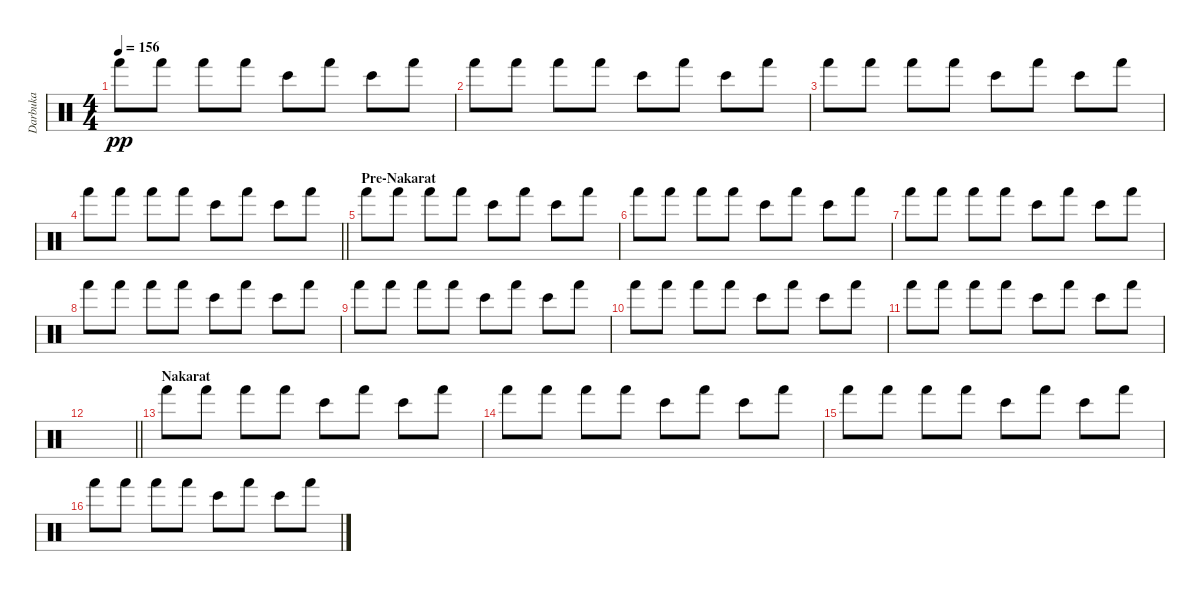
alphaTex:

\track ("Darbuka" "Darbuka") {instrument percussion}
\staff {score}
\articulation defaults
\ts (4 4)
\tempo 156
\clef neutral
\ks c "Hand (hit)".8{dy pp} "Hand (hit)".8 "Hand (hit)".8 "Hand (hit)".8 "Bongo High (hit)".8 "Hand (hit)".8 "Bongo High (hit)".8 "Hand (hit)".8
|
"Hand (hit)".8 "Hand (hit)".8 "Hand (hit)".8 "Hand (hit)".8 "Bongo High (hit)".8 "Hand (hit)".8 "Bongo High (hit)".8 "Hand (hit)".8 |
"Hand (hit)".8 "Hand (hit)".8 "Hand (hit)".8 "Hand (hit)".8 "Bongo High (hit)".8 "Hand (hit)".8 "Bongo High (hit)".8 "Hand (hit)".8 |
\barLineRight lightlight "Hand (hit)".8 "Hand (hit)".8 "Hand (hit)".8 "Hand (hit)".8 "Bongo High (hit)".8 "Hand (hit)".8 "Bongo High (hit)".8 "Hand (hit)".8
|
\section ("" "Pre-Nakarat")
"Hand (hit)".8 "Hand (hit)".8 "Hand (hit)".8 "Hand (hit)".8 "Bongo High (hit)".8 "Hand (hit)".8 "Bongo High (hit)".8 "Hand (hit)".8 |
"Hand (hit)".8 "Hand (hit)".8 "Hand (hit)".8 "Hand (hit)".8 "Bongo High (hit)".8 "Hand (hit)".8 "Bongo High (hit)".8 "Hand (hit)".8 |
"Hand (hit)".8 "Hand (hit)".8 "Hand (hit)".8 "Hand (hit)".8 "Bongo High (hit)".8 "Hand (hit)".8 "Bongo High (hit)".8 "Hand (hit)".8 |
"Hand (hit)".8 "Hand (hit)".8 "Hand (hit)".8 "Hand (hit)".8 "Bongo High (hit)".8 "Hand (hit)".8 "Bongo High (hit)".8 "Hand (hit)".8 |
"Hand (hit)".8 "Hand (hit)".8 "Hand (hit)".8 "Hand (hit)".8 "Bongo High (hit)".8 "Hand (hit)".8 "Bongo High (hit)".8 "Hand (hit)".8 |
"Hand (hit)".8 "Hand (hit)".8 "Hand (hit)".8 "Hand (hit)".8 "Bongo High (hit)".8 "Hand (hit)".8 "Bongo High (hit)".8 "Hand (hit)".8 |
"Hand (hit)".8 "Hand (hit)".8 "Hand (hit)".8 "Hand (hit)".8 "Bongo High (hit)".8 "Hand (hit)".8 "Bongo High (hit)".8 "Hand (hit)".8 |
\barLineRight lightlight
|
\section ("" "Nakarat")
"Hand (hit)".8 "Hand (hit)".8 "Hand (hit)".8 "Hand (hit)".8 "Bongo High (hit)".8 "Hand (hit)".8 "Bongo High (hit)".8 "Hand (hit)".8 |
"Hand (hit)".8 "Hand (hit)".8 "Hand (hit)".8 "Hand (hit)".8 "Bongo High (hit)".8 "Hand (hit)".8 "Bongo High (hit)".8 "Hand (hit)".8 |
"Hand (hit)".8 "Hand (hit)".8 "Hand (hit)".8 "Hand (hit)".8 "Bongo High (hit)".8 "Hand (hit)".8 "Bongo High (hit)".8 "Hand (hit)".8 |
"Hand (hit)".8 "Hand (hit)".8 "Hand (hit)".8 "Hand (hit)".8 "Bongo High (hit)".8 "Hand (hit)".8 "Bongo High (hit)".8 "Hand (hit)".8
